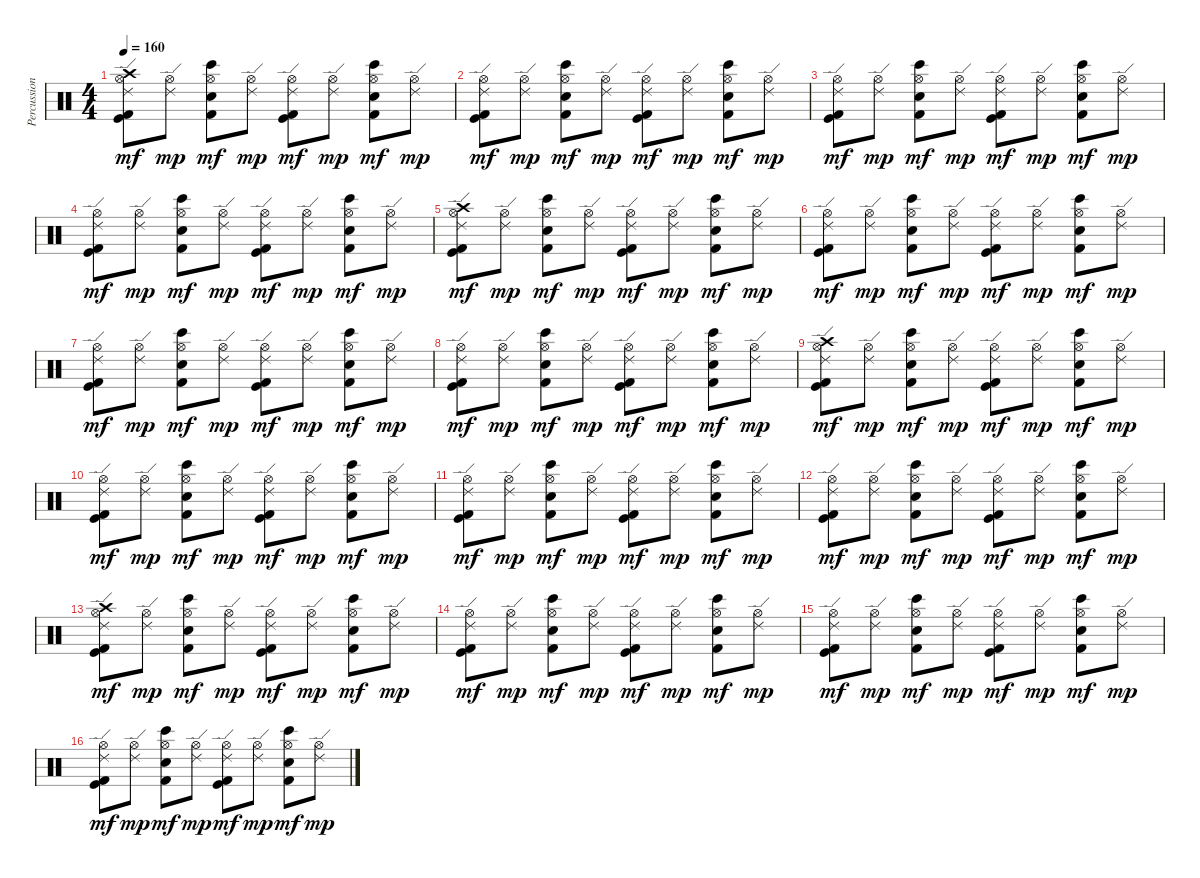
\track ("Percussion" "Percussion") {instrument percussion}
\staff {score}
\articulation defaults
\ts (4 4)
\tempo 160
\clef neutral
\ks c
("Crash high (hit)" "Ride (edge) 2" "Hi-Hat (open)" "Kick (hit)" "Kick (hit) 2").8{dy mf} ("Ride (edge) 2" "Hi-Hat (open)").8{dy mp} ("Bongo High (hit)" "Hi-Hat (open)" "Hand Clap (hit)" "Kick (hit) 2").8{dy mf} ("Ride (edge) 2" "Hi-Hat (open)").8{dy mp} ("Ride (edge) 2" "Hi-Hat (open)" "Kick (hit)" "Kick (hit) 2").8{dy mf} ("Ride (edge) 2" "Hi-Hat (open)").8{dy mp} ("Bongo High (hit)" "Hi-Hat (open)" "Hand Clap (hit)" "Kick (hit) 2").8{dy mf} ("Ride (edge) 2" "Hi-Hat (open)").8{dy mp} |
("Ride (edge) 2" "Hi-Hat (open)" "Kick (hit)" "Kick (hit) 2").8{dy mf} ("Ride (edge) 2" "Hi-Hat (open)").8{dy mp} ("Bongo High (hit)" "Hi-Hat (open)" "Hand Clap (hit)" "Kick (hit) 2").8{dy mf} ("Ride (edge) 2" "Hi-Hat (open)").8{dy mp} ("Ride (edge) 2" "Hi-Hat (open)" "Kick (hit)" "Kick (hit) 2").8{dy mf} ("Ride (edge) 2" "Hi-Hat (open)").8{dy mp} ("Bongo High (hit)" "Hi-Hat (open)" "Hand Clap (hit)" "Kick (hit) 2").8{dy mf} ("Ride (edge) 2" "Hi-Hat (open)").8{dy mp} |
("Ride (edge) 2" "Hi-Hat (open)" "Kick (hit)" "Kick (hit) 2").8{dy mf} ("Ride (edge) 2" "Hi-Hat (open)").8{dy mp} ("Bongo High (hit)" "Hi-Hat (open)" "Hand Clap (hit)" "Kick (hit) 2").8{dy mf} ("Ride (edge) 2" "Hi-Hat (open)").8{dy mp} ("Ride (edge) 2" "Hi-Hat (open)" "Kick (hit)" "Kick (hit) 2").8{dy mf} ("Ride (edge) 2" "Hi-Hat (open)").8{dy mp} ("Bongo High (hit)" "Hi-Hat (open)" "Hand Clap (hit)" "Kick (hit) 2").8{dy mf} ("Ride (edge) 2" "Hi-Hat (open)").8{dy mp} |
("Ride (edge) 2" "Hi-Hat (open)" "Kick (hit)" "Kick (hit) 2").8{dy mf} ("Ride (edge) 2" "Hi-Hat (open)").8{dy mp} ("Bongo High (hit)" "Hi-Hat (open)" "Hand Clap (hit)" "Kick (hit) 2").8{dy mf} ("Ride (edge) 2" "Hi-Hat (open)").8{dy mp} ("Ride (edge) 2" "Hi-Hat (open)" "Kick (hit)" "Kick (hit) 2").8{dy mf} ("Ride (edge) 2" "Hi-Hat (open)").8{dy mp} ("Bongo High (hit)" "Hi-Hat (open)" "Hand Clap (hit)" "Kick (hit) 2").8{dy mf} ("Ride (edge) 2" "Hi-Hat (open)").8{dy mp} |
("Crash high (hit)" "Ride (edge) 2" "Hi-Hat (open)" "Kick (hit)" "Kick (hit) 2").8{dy mf} ("Ride (edge) 2" "Hi-Hat (open)").8{dy mp} ("Bongo High (hit)" "Hi-Hat (open)" "Hand Clap (hit)" "Kick (hit) 2").8{dy mf} ("Ride (edge) 2" "Hi-Hat (open)").8{dy mp} ("Ride (edge) 2" "Hi-Hat (open)" "Kick (hit)" "Kick (hit) 2").8{dy mf} ("Ride (edge) 2" "Hi-Hat (open)").8{dy mp} ("Bongo High (hit)" "Hi-Hat (open)" "Hand Clap (hit)" "Kick (hit) 2").8{dy mf} ("Ride (edge) 2" "Hi-Hat (open)").8{dy mp} |
("Ride (edge) 2" "Hi-Hat (open)" "Kick (hit)" "Kick (hit) 2").8{dy mf} ("Ride (edge) 2" "Hi-Hat (open)").8{dy mp} ("Bongo High (hit)" "Hi-Hat (open)" "Hand Clap (hit)" "Kick (hit) 2").8{dy mf} ("Ride (edge) 2" "Hi-Hat (open)").8{dy mp} ("Ride (edge) 2" "Hi-Hat (open)" "Kick (hit)" "Kick (hit) 2").8{dy mf} ("Ride (edge) 2" "Hi-Hat (open)").8{dy mp} ("Bongo High (hit)" "Hi-Hat (open)" "Hand Clap (hit)" "Kick (hit) 2").8{dy mf} ("Ride (edge) 2" "Hi-Hat (open)").8{dy mp} |
("Ride (edge) 2" "Hi-Hat (open)" "Kick (hit)" "Kick (hit) 2").8{dy mf} ("Ride (edge) 2" "Hi-Hat (open)").8{dy mp} ("Bongo High (hit)" "Hi-Hat (open)" "Hand Clap (hit)" "Kick (hit) 2").8{dy mf} ("Ride (edge) 2" "Hi-Hat (open)").8{dy mp} ("Ride (edge) 2" "Hi-Hat (open)" "Kick (hit)" "Kick (hit) 2").8{dy mf} ("Ride (edge) 2" "Hi-Hat (open)").8{dy mp} ("Bongo High (hit)" "Hi-Hat (open)" "Hand Clap (hit)" "Kick (hit) 2").8{dy mf} ("Ride (edge) 2" "Hi-Hat (open)").8{dy mp} |
("Ride (edge) 2" "Hi-Hat (open)" "Kick (hit)" "Kick (hit) 2").8{dy mf} ("Ride (edge) 2" "Hi-Hat (open)").8{dy mp} ("Bongo High (hit)" "Hi-Hat (open)" "Hand Clap (hit)" "Kick (hit) 2").8{dy mf} ("Ride (edge) 2" "Hi-Hat (open)").8{dy mp} ("Ride (edge) 2" "Hi-Hat (open)" "Kick (hit)" "Kick (hit) 2").8{dy mf} ("Ride (edge) 2" "Hi-Hat (open)").8{dy mp} ("Bongo High (hit)" "Hi-Hat (open)" "Hand Clap (hit)" "Kick (hit) 2").8{dy mf} ("Ride (edge) 2" "Hi-Hat (open)").8{dy mp} |
("Crash high (hit)" "Ride (edge) 2" "Hi-Hat (open)" "Kick (hit)" "Kick (hit) 2").8{dy mf} ("Ride (edge) 2" "Hi-Hat (open)").8{dy mp} ("Bongo High (hit)" "Hi-Hat (open)" "Hand Clap (hit)" "Kick (hit) 2").8{dy mf} ("Ride (edge) 2" "Hi-Hat (open)").8{dy mp} ("Ride (edge) 2" "Hi-Hat (open)" "Kick (hit)" "Kick (hit) 2").8{dy mf} ("Ride (edge) 2" "Hi-Hat (open)").8{dy mp} ("Bongo High (hit)" "Hi-Hat (open)" "Hand Clap (hit)" "Kick (hit) 2").8{dy mf} ("Ride (edge) 2" "Hi-Hat (open)").8{dy mp} |
("Ride (edge) 2" "Hi-Hat (open)" "Kick (hit)" "Kick (hit) 2").8{dy mf} ("Ride (edge) 2" "Hi-Hat (open)").8{dy mp} ("Bongo High (hit)" "Hi-Hat (open)" "Hand Clap (hit)" "Kick (hit) 2").8{dy mf} ("Ride (edge) 2" "Hi-Hat (open)").8{dy mp} ("Ride (edge) 2" "Hi-Hat (open)" "Kick (hit)" "Kick (hit) 2").8{dy mf} ("Ride (edge) 2" "Hi-Hat (open)").8{dy mp} ("Bongo High (hit)" "Hi-Hat (open)" "Hand Clap (hit)" "Kick (hit) 2").8{dy mf} ("Ride (edge) 2" "Hi-Hat (open)").8{dy mp} |
("Ride (edge) 2" "Hi-Hat (open)" "Kick (hit)" "Kick (hit) 2").8{dy mf} ("Ride (edge) 2" "Hi-Hat (open)").8{dy mp} ("Bongo High (hit)" "Hi-Hat (open)" "Hand Clap (hit)" "Kick (hit) 2").8{dy mf} ("Ride (edge) 2" "Hi-Hat (open)").8{dy mp} ("Ride (edge) 2" "Hi-Hat (open)" "Kick (hit)" "Kick (hit) 2").8{dy mf} ("Ride (edge) 2" "Hi-Hat (open)").8{dy mp} ("Bongo High (hit)" "Hi-Hat (open)" "Hand Clap (hit)" "Kick (hit) 2").8{dy mf} ("Ride (edge) 2" "Hi-Hat (open)").8{dy mp} |
("Ride (edge) 2" "Hi-Hat (open)" "Kick (hit)" "Kick (hit) 2").8{dy mf} ("Ride (edge) 2" "Hi-Hat (open)").8{dy mp} ("Bongo High (hit)" "Hi-Hat (open)" "Hand Clap (hit)" "Kick (hit) 2").8{dy mf} ("Ride (edge) 2" "Hi-Hat (open)").8{dy mp} ("Ride (edge) 2" "Hi-Hat (open)" "Kick (hit)" "Kick (hit) 2").8{dy mf} ("Ride (edge) 2" "Hi-Hat (open)").8{dy mp} ("Bongo High (hit)" "Hi-Hat (open)" "Hand Clap (hit)" "Kick (hit) 2").8{dy mf} ("Ride (edge) 2" "Hi-Hat (open)").8{dy mp} |
("Crash high (hit)" "Ride (edge) 2" "Hi-Hat (open)" "Kick (hit)" "Kick (hit) 2").8{dy mf} ("Ride (edge) 2" "Hi-Hat (open)").8{dy mp} ("Bongo High (hit)" "Hi-Hat (open)" "Hand Clap (hit)" "Kick (hit) 2").8{dy mf} ("Ride (edge) 2" "Hi-Hat (open)").8{dy mp} ("Ride (edge) 2" "Hi-Hat (open)" "Kick (hit)" "Kick (hit) 2").8{dy mf} ("Ride (edge) 2" "Hi-Hat (open)").8{dy mp} ("Bongo High (hit)" "Hi-Hat (open)" "Hand Clap (hit)" "Kick (hit) 2").8{dy mf} ("Ride (edge) 2" "Hi-Hat (open)").8{dy mp} |
("Ride (edge) 2" "Hi-Hat (open)" "Kick (hit)" "Kick (hit) 2").8{dy mf} ("Ride (edge) 2" "Hi-Hat (open)").8{dy mp} ("Bongo High (hit)" "Hi-Hat (open)" "Hand Clap (hit)" "Kick (hit) 2").8{dy mf} ("Ride (edge) 2" "Hi-Hat (open)").8{dy mp} ("Ride (edge) 2" "Hi-Hat (open)" "Kick (hit)" "Kick (hit) 2").8{dy mf} ("Ride (edge) 2" "Hi-Hat (open)").8{dy mp} ("Bongo High (hit)" "Hi-Hat (open)" "Hand Clap (hit)" "Kick (hit) 2").8{dy mf} ("Ride (edge) 2" "Hi-Hat (open)").8{dy mp} |
("Ride (edge) 2" "Hi-Hat (open)" "Kick (hit)" "Kick (hit) 2").8{dy mf} ("Ride (edge) 2" "Hi-Hat (open)").8{dy mp} ("Bongo High (hit)" "Hi-Hat (open)" "Hand Clap (hit)" "Kick (hit) 2").8{dy mf} ("Ride (edge) 2" "Hi-Hat (open)").8{dy mp} ("Ride (edge) 2" "Hi-Hat (open)" "Kick (hit)" "Kick (hit) 2").8{dy mf} ("Ride (edge) 2" "Hi-Hat (open)").8{dy mp} ("Bongo High (hit)" "Hi-Hat (open)" "Hand Clap (hit)" "Kick (hit) 2").8{dy mf} ("Ride (edge) 2" "Hi-Hat (open)").8{dy mp} |
("Ride (edge) 2" "Hi-Hat (open)" "Kick (hit)" "Kick (hit) 2").8{dy mf} ("Ride (edge) 2" "Hi-Hat (open)").8{dy mp} ("Bongo High (hit)" "Hi-Hat (open)" "Hand Clap (hit)" "Kick (hit) 2").8{dy mf} ("Ride (edge) 2" "Hi-Hat (open)").8{dy mp} ("Ride (edge) 2" "Hi-Hat (open)" "Kick (hit)" "Kick (hit) 2").8{dy mf} ("Ride (edge) 2" "Hi-Hat (open)").8{dy mp} ("Bongo High (hit)" "Hi-Hat (open)" "Hand Clap (hit)" "Kick (hit) 2").8{dy mf} ("Ride (edge) 2" "Hi-Hat (open)").8{dy mp}
